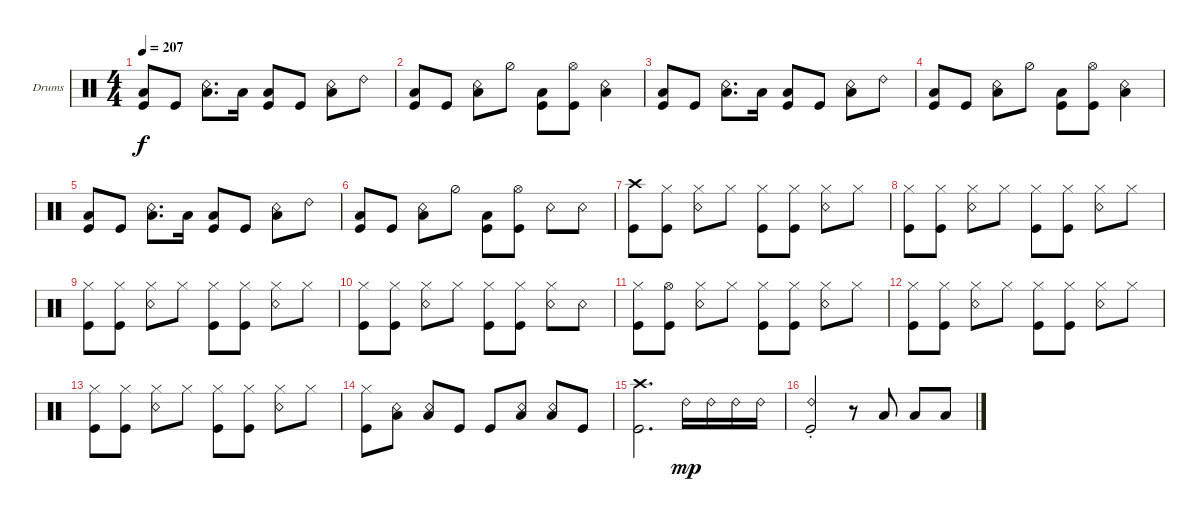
\defaultSystemsLayout 4
\bracketExtendMode groupsimilarinstruments
\firstSystemTrackNameOrientation horizontal
\otherSystemsTrackNameOrientation horizontal
\track ("Drums" "Drums") {instrument percussion}
\staff {score}
\articulation defaults
\ts (4 4)
\tempo 207
\clef neutral
\ks c
("Kick (hit)" "Low Tom (hit)").8{dy f} "Kick (hit)".8 ("Snare (rim shot)" "Low Tom (hit)").8{d} "Low Tom (hit)".16 ("Kick (hit)" "Low Tom (hit)").8 "Kick (hit)".8 ("Snare (rim shot)" "Low Tom (hit)").8 "Ride (bell) 2".8 |
("Kick (hit)" "Low Tom (hit)").8 "Kick (hit)".8 ("Snare (rim shot)" "Low Tom (hit)").8 "Hi-Hat (half)".8 ("Kick (hit)" "Low Tom (hit)").8 ("Kick (hit)" "Hi-Hat (open)").8 ("Snare (rim shot)" "Low Tom (hit)").4 |
("Kick (hit)" "Low Tom (hit)").8 "Kick (hit)".8 ("Snare (rim shot)" "Low Tom (hit)").8{d} "Low Tom (hit)".16 ("Kick (hit)" "Low Tom (hit)").8 "Kick (hit)".8 ("Snare (rim shot)" "Low Tom (hit)").8 "Ride (bell) 2".8 |
("Kick (hit)" "Low Tom (hit)").8 "Kick (hit)".8 ("Snare (rim shot)" "Low Tom (hit)").8 "Hi-Hat (half)".8 ("Kick (hit)" "Low Tom (hit)").8 ("Kick (hit)" "Hi-Hat (open)").8 ("Snare (rim shot)" "Low Tom (hit)").4 |
("Kick (hit)" "Low Tom (hit)").8 "Kick (hit)".8 ("Snare (rim shot)" "Low Tom (hit)").8{d} "Low Tom (hit)".16 ("Kick (hit)" "Low Tom (hit)").8 "Kick (hit)".8 ("Snare (rim shot)" "Low Tom (hit)").8 "Ride (bell) 2".8 |
("Kick (hit)" "Low Tom (hit)").8 "Kick (hit)".8 ("Snare (rim shot)" "Low Tom (hit)").8 "Hi-Hat (half)".8 ("Kick (hit)" "Low Tom (hit)").8 ("Kick (hit)" "Hi-Hat (open)").8 "Snare (rim shot)".8 "Snare (rim shot)".8 |
("Kick (hit)" "Crash high (hit)").8 ("Kick (hit)" "Hi-Hat (closed)").8 ("Snare (rim shot)" "Hi-Hat (closed)").8 "Hi-Hat (closed)".8 ("Kick (hit)" "Hi-Hat (closed)").8 ("Kick (hit)" "Hi-Hat (closed)").8 ("Snare (rim shot)" "Hi-Hat (closed)").8 "Hi-Hat (closed)".8 |
("Kick (hit)" "Hi-Hat (closed)").8 ("Kick (hit)" "Hi-Hat (closed)").8 ("Snare (rim shot)" "Hi-Hat (closed)").8 "Hi-Hat (closed)".8 ("Kick (hit)" "Hi-Hat (closed)").8 ("Kick (hit)" "Hi-Hat (closed)").8 ("Snare (rim shot)" "Hi-Hat (closed)").8 "Hi-Hat (closed)".8 |
("Kick (hit)" "Hi-Hat (closed)").8 ("Kick (hit)" "Hi-Hat (closed)").8 ("Snare (rim shot)" "Hi-Hat (closed)").8 "Hi-Hat (closed)".8 ("Kick (hit)" "Hi-Hat (closed)").8 ("Kick (hit)" "Hi-Hat (closed)").8 ("Snare (rim shot)" "Hi-Hat (closed)").8 "Hi-Hat (closed)".8 |
("Kick (hit)" "Hi-Hat (closed)").8 ("Kick (hit)" "Hi-Hat (closed)").8 ("Snare (rim shot)" "Hi-Hat (closed)").8 "Hi-Hat (closed)".8 ("Kick (hit)" "Hi-Hat (closed)").8 ("Kick (hit)" "Hi-Hat (closed)").8 ("Snare (rim shot)" "Hi-Hat (closed)").8 "Snare (rim shot)".8 |
("Kick (hit)" "Hi-Hat (closed)").8 ("Kick (hit)" "Hi-Hat (open)").8 ("Snare (rim shot)" "Hi-Hat (closed)").8 "Hi-Hat (closed)".8 ("Kick (hit)" "Hi-Hat (closed)").8 ("Kick (hit)" "Hi-Hat (closed)").8 ("Snare (rim shot)" "Hi-Hat (closed)").8 "Hi-Hat (closed)".8 |
("Kick (hit)" "Hi-Hat (closed)").8 ("Kick (hit)" "Hi-Hat (closed)").8 ("Snare (rim shot)" "Hi-Hat (closed)").8 "Hi-Hat (closed)".8 ("Kick (hit)" "Hi-Hat (closed)").8 ("Kick (hit)" "Hi-Hat (closed)").8 ("Snare (rim shot)" "Hi-Hat (closed)").8 "Hi-Hat (closed)".8 |
("Kick (hit)" "Hi-Hat (closed)").8 ("Kick (hit)" "Hi-Hat (closed)").8 ("Snare (rim shot)" "Hi-Hat (closed)").8 "Hi-Hat (closed)".8 ("Kick (hit)" "Hi-Hat (closed)").8 ("Kick (hit)" "Hi-Hat (closed)").8 ("Snare (rim shot)" "Hi-Hat (closed)").8 "Hi-Hat (closed)".8 |
("Kick (hit)" "Hi-Hat (closed)").8 ("Snare (rim shot)" "Low Tom (hit)").8 ("Snare (rim shot)" "Low Tom (hit)").8 "Kick (hit)".8 "Kick (hit)".8 ("Snare (rim shot)" "Low Tom (hit)").8 ("Snare (rim shot)" "Low Tom (hit)").8 "Kick (hit)".8 |
("Kick (hit)" "Crash high (hit)").2{d} "Ride (bell) 2".16{dy mp} "Ride (bell) 2".16 "Ride (bell) 2".16 "Ride (bell) 2".16 |
("Ride (bell) 2"{st} "Kick (hit)"{st}).2 r.8 "Low Tom (hit)".8 "Low Tom (hit)".8 "Low Tom (hit)".8
